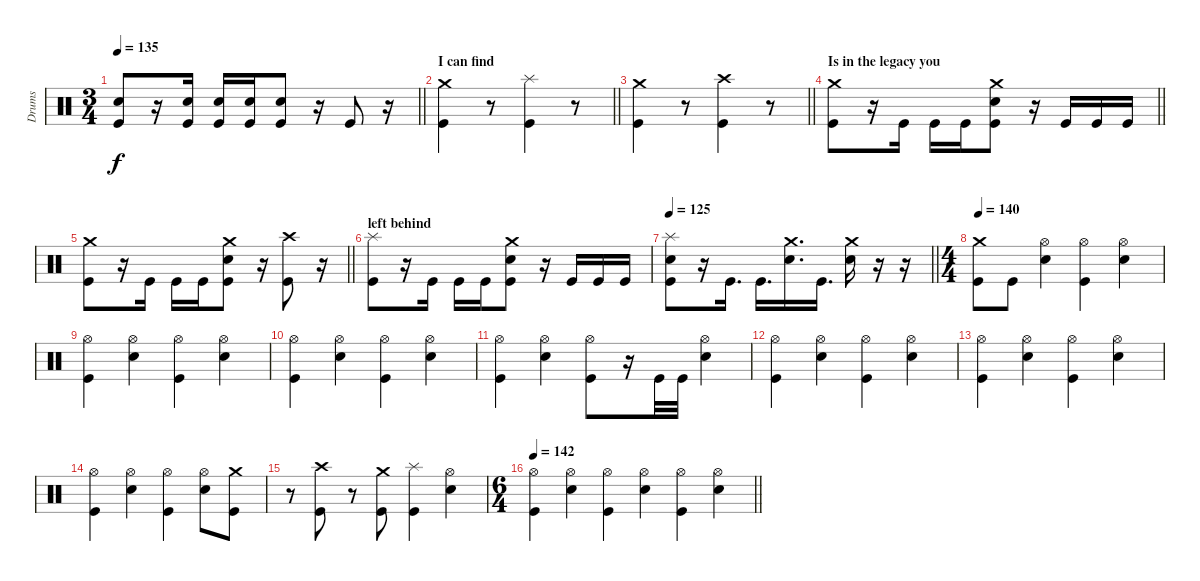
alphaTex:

\track ("Drums" "Drums") {instrument percussion}
\staff {score}
\articulation defaults
\ts (3 4)
\tempo 135
\clef neutral
\barLineRight lightlight
\ks c
("Snare (hit) 2" "Kick (hit)").8{dy f} r.16 ("Snare (hit) 2" "Kick (hit)").16 ("Snare (hit) 2" "Kick (hit)").16 ("Snare (hit) 2" "Kick (hit)").16 ("Snare (hit) 2" "Kick (hit)").8 r.16 "Kick (hit)".8 r.16 |
\section ("" "I can find")
\barLineRight lightlight
("Crash medium (hit)" "Kick (hit)").4 r.8 ("Splash (hit)" "Kick (hit)").4 r.8 |
\barLineRight lightlight
("Crash medium (hit)" "Kick (hit)").4 r.8 ("Crash high (hit)" "Kick (hit)").4 r.8 |
\section ("" "Is in the legacy you ")
\barLineRight lightlight
("Crash medium (hit)" "Kick (hit)").8 r.16 "Kick (hit)".16 "Kick (hit)".16 "Kick (hit)".16 ("Crash medium (hit)" "Snare (hit) 2" "Kick (hit)").8 r.16 "Kick (hit)".16 "Kick (hit)".16 "Kick (hit)".16 |
\section ("" "")
\barLineRight lightlight
("Crash medium (hit)" "Kick (hit)").8 r.16 "Kick (hit)".16 "Kick (hit)".16 "Kick (hit)".16 ("Crash medium (hit)" "Snare (hit) 2" "Kick (hit)").8 r.16 ("Crash high (hit)" "Kick (hit)").8 r.16 |
\section ("" "left behind")
("Splash (hit)" "Kick (hit)").8 r.16 "Kick (hit)".16 "Kick (hit)".16 "Kick (hit)".16 ("Crash medium (hit)" "Snare (hit) 2" "Kick (hit)").8 r.16 "Kick (hit)".16 "Kick (hit)".16 "Kick (hit)".16 |
\tempo 125
\barLineRight lightlight
("Splash (hit)" "Snare (hit) 2" "Kick (hit)").8 r.16 "Kick (hit)".16{d} "Kick (hit)".16{d} ("Crash medium (hit)" "Snare (hit) 2").16{d} "Kick (hit)".16{d} ("Crash medium (hit)" "Snare (hit) 2").16 r.16 r.16 |
\ts (4 4)
\tempo 140
("Crash medium (hit)" "Kick (hit)").8 "Kick (hit)".8 ("Hi-Hat (open)" "Snare (hit) 2").4 ("Hi-Hat (open)" "Kick (hit)").4 ("Hi-Hat (open)" "Snare (hit) 2").4 |
("Hi-Hat (open)" "Kick (hit)").4 ("Hi-Hat (open)" "Snare (hit) 2").4 ("Hi-Hat (open)" "Kick (hit)").4 ("Hi-Hat (open)" "Snare (hit) 2").4 |
("Hi-Hat (open)" "Kick (hit)").4 ("Hi-Hat (open)" "Snare (hit) 2").4 ("Hi-Hat (open)" "Kick (hit)").4 ("Hi-Hat (open)" "Snare (hit) 2").4 |
("Hi-Hat (open)" "Kick (hit)").4 ("Hi-Hat (open)" "Snare (hit) 2").4 ("Hi-Hat (open)" "Kick (hit)").8 r.16 "Kick (hit)".32 "Kick (hit)".32 ("Hi-Hat (open)" "Snare (hit) 2").4 |
("Hi-Hat (open)" "Kick (hit)").4 ("Hi-Hat (open)" "Snare (hit) 2").4 ("Hi-Hat (open)" "Kick (hit)").4 ("Hi-Hat (open)" "Snare (hit) 2").4 |
("Hi-Hat (open)" "Kick (hit)").4 ("Hi-Hat (open)" "Snare (hit) 2").4 ("Hi-Hat (open)" "Kick (hit)").4 ("Hi-Hat (open)" "Snare (hit) 2").4 |
("Hi-Hat (open)" "Kick (hit)").4 ("Hi-Hat (open)" "Snare (hit) 2").4 ("Hi-Hat (open)" "Kick (hit)").4 ("Hi-Hat (open)" "Snare (hit) 2").8 ("Crash medium (hit)" "Kick (hit)").8 |
r.8 ("Crash high (hit)" "Kick (hit)").8 r.8 ("Crash medium (hit)" "Kick (hit)").8 ("Splash (hit)" "Kick (hit)").4 ("Hi-Hat (open)" "Snare (hit) 2").4 |
\ts (6 4)
\tempo 142
\barLineRight lightlight
("Hi-Hat (open)" "Kick (hit)").4 ("Hi-Hat (open)" "Snare (hit) 2").4 ("Hi-Hat (open)" "Kick (hit)").4 ("Hi-Hat (open)" "Snare (hit) 2").4 ("Hi-Hat (open)" "Kick (hit)").4 ("Hi-Hat (open)" "Snare (hit) 2").4
